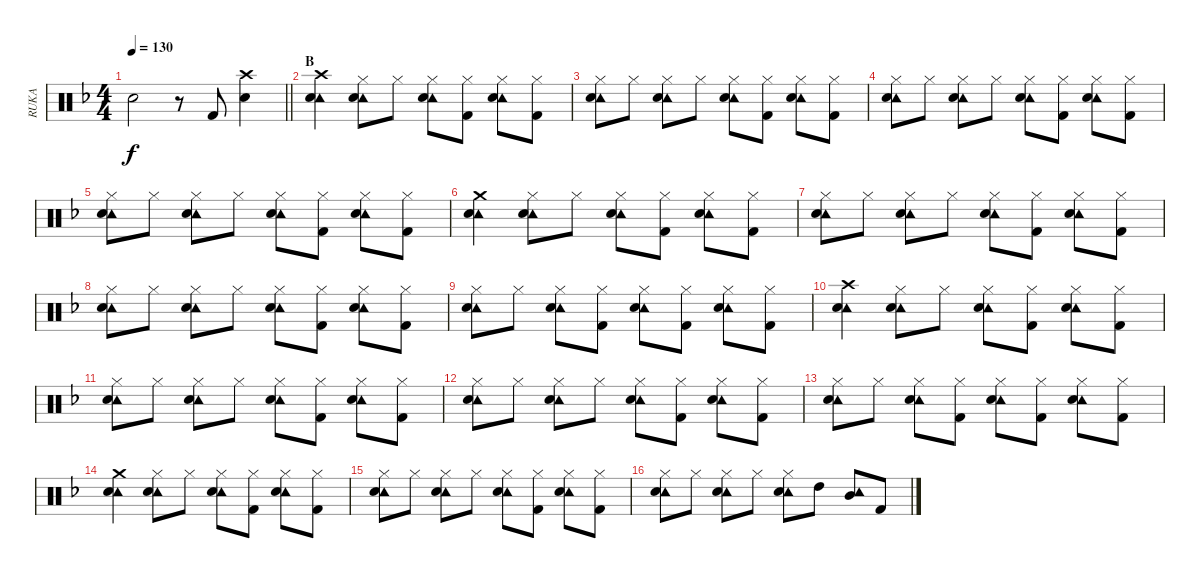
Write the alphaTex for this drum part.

\track ("RUKA" "RUKA") {instrument percussion}
\staff {score}
\articulation defaults
\ts (4 4)
\tempo 130
\clef neutral
\barLineRight lightlight
\ks f "Snare (hit)"{t}.2{dy f}
r.8 "Kick (hit) 2".8 ("Crash high (hit)" "Snare (hit) 2").4 |
\section ("" "B")
("Crash high (hit)" "Tambourine (hit)" "Snare (hit) 2").4 ("Hi-Hat (closed)" "Tambourine (hit)" "Snare (hit) 2").8 "Hi-Hat (closed)".8 ("Hi-Hat (closed)" "Tambourine (hit)" "Snare (hit) 2").8 ("Hi-Hat (closed)" "Kick (hit) 2").8 ("Hi-Hat (closed)" "Tambourine (hit)" "Snare (hit) 2").8 ("Hi-Hat (closed)" "Kick (hit) 2").8 |
("Hi-Hat (closed)" "Tambourine (hit)" "Snare (hit) 2").8 "Hi-Hat (closed)".8 ("Hi-Hat (closed)" "Tambourine (hit)" "Snare (hit) 2").8 "Hi-Hat (closed)".8 ("Hi-Hat (closed)" "Tambourine (hit)" "Snare (hit) 2").8 ("Hi-Hat (closed)" "Kick (hit) 2").8 ("Hi-Hat (closed)" "Tambourine (hit)" "Snare (hit) 2").8 ("Hi-Hat (closed)" "Kick (hit) 2").8 |
("Hi-Hat (closed)" "Tambourine (hit)" "Snare (hit) 2").8 "Hi-Hat (closed)".8 ("Hi-Hat (closed)" "Tambourine (hit)" "Snare (hit) 2").8 "Hi-Hat (closed)".8 ("Hi-Hat (closed)" "Tambourine (hit)" "Snare (hit) 2").8 ("Hi-Hat (closed)" "Kick (hit) 2").8 ("Hi-Hat (closed)" "Tambourine (hit)" "Snare (hit) 2").8 ("Hi-Hat (closed)" "Kick (hit) 2").8 |
("Hi-Hat (closed)" "Tambourine (hit)" "Snare (hit) 2").8 "Hi-Hat (closed)".8 ("Hi-Hat (closed)" "Tambourine (hit)" "Snare (hit) 2").8 "Hi-Hat (closed)".8 ("Hi-Hat (closed)" "Tambourine (hit)" "Snare (hit) 2").8 ("Hi-Hat (closed)" "Kick (hit) 2").8 ("Hi-Hat (closed)" "Tambourine (hit)" "Snare (hit) 2").8 ("Hi-Hat (closed)" "Kick (hit) 2").8 |
("Crash medium (hit)" "Tambourine (hit)" "Snare (hit) 2").4 ("Hi-Hat (closed)" "Tambourine (hit)" "Snare (hit) 2").8 "Hi-Hat (closed)".8 ("Hi-Hat (closed)" "Tambourine (hit)" "Snare (hit) 2").8 ("Hi-Hat (closed)" "Kick (hit) 2").8 ("Hi-Hat (closed)" "Tambourine (hit)" "Snare (hit) 2").8 ("Hi-Hat (closed)" "Kick (hit) 2").8 |
("Hi-Hat (closed)" "Tambourine (hit)" "Snare (hit) 2").8 "Hi-Hat (closed)".8 ("Hi-Hat (closed)" "Tambourine (hit)" "Snare (hit) 2").8 "Hi-Hat (closed)".8 ("Hi-Hat (closed)" "Tambourine (hit)" "Snare (hit) 2").8 ("Hi-Hat (closed)" "Kick (hit) 2").8 ("Hi-Hat (closed)" "Tambourine (hit)" "Snare (hit) 2").8 ("Hi-Hat (closed)" "Kick (hit) 2").8 |
("Hi-Hat (closed)" "Tambourine (hit)" "Snare (hit) 2").8 "Hi-Hat (closed)".8 ("Hi-Hat (closed)" "Tambourine (hit)" "Snare (hit) 2").8 "Hi-Hat (closed)".8 ("Hi-Hat (closed)" "Tambourine (hit)" "Snare (hit) 2").8 ("Hi-Hat (closed)" "Kick (hit) 2").8 ("Hi-Hat (closed)" "Tambourine (hit)" "Snare (hit) 2").8 ("Hi-Hat (closed)" "Kick (hit) 2").8 |
("Hi-Hat (closed)" "Tambourine (hit)" "Snare (hit) 2").8 "Hi-Hat (closed)".8 ("Hi-Hat (closed)" "Tambourine (hit)" "Snare (hit) 2").8 ("Hi-Hat (closed)" "Kick (hit) 2").8 ("Hi-Hat (closed)" "Tambourine (hit)" "Snare (hit) 2").8 ("Hi-Hat (closed)" "Kick (hit) 2").8 ("Hi-Hat (closed)" "Tambourine (hit)" "Snare (hit) 2").8 ("Hi-Hat (closed)" "Kick (hit) 2").8 |
("Crash high (hit)" "Tambourine (hit)" "Snare (hit) 2").4 ("Hi-Hat (closed)" "Tambourine (hit)" "Snare (hit) 2").8 "Hi-Hat (closed)".8 ("Hi-Hat (closed)" "Tambourine (hit)" "Snare (hit) 2").8 ("Hi-Hat (closed)" "Kick (hit) 2").8 ("Hi-Hat (closed)" "Tambourine (hit)" "Snare (hit) 2").8 ("Hi-Hat (closed)" "Kick (hit) 2").8 |
("Hi-Hat (closed)" "Tambourine (hit)" "Snare (hit) 2").8 "Hi-Hat (closed)".8 ("Hi-Hat (closed)" "Tambourine (hit)" "Snare (hit) 2").8 "Hi-Hat (closed)".8 ("Hi-Hat (closed)" "Tambourine (hit)" "Snare (hit) 2").8 ("Hi-Hat (closed)" "Kick (hit) 2").8 ("Hi-Hat (closed)" "Tambourine (hit)" "Snare (hit) 2").8 ("Hi-Hat (closed)" "Kick (hit) 2").8 |
("Hi-Hat (closed)" "Tambourine (hit)" "Snare (hit) 2").8 "Hi-Hat (closed)".8 ("Hi-Hat (closed)" "Tambourine (hit)" "Snare (hit) 2").8 "Hi-Hat (closed)".8 ("Hi-Hat (closed)" "Tambourine (hit)" "Snare (hit) 2").8 ("Hi-Hat (closed)" "Kick (hit) 2").8 ("Hi-Hat (closed)" "Tambourine (hit)" "Snare (hit) 2").8 ("Hi-Hat (closed)" "Kick (hit) 2").8 |
("Hi-Hat (closed)" "Tambourine (hit)" "Snare (hit) 2").8 "Hi-Hat (closed)".8 ("Hi-Hat (closed)" "Tambourine (hit)" "Snare (hit) 2").8 ("Hi-Hat (closed)" "Kick (hit) 2").8 ("Hi-Hat (closed)" "Tambourine (hit)" "Snare (hit) 2").8 ("Hi-Hat (closed)" "Kick (hit) 2").8 ("Hi-Hat (closed)" "Tambourine (hit)" "Snare (hit) 2").8 ("Hi-Hat (closed)" "Kick (hit) 2").8 |
("Crash medium (hit)" "Tambourine (hit)" "Snare (hit) 2").4 ("Hi-Hat (closed)" "Tambourine (hit)" "Snare (hit) 2").8 "Hi-Hat (closed)".8 ("Hi-Hat (closed)" "Tambourine (hit)" "Snare (hit) 2").8 ("Hi-Hat (closed)" "Kick (hit) 2").8 ("Hi-Hat (closed)" "Tambourine (hit)" "Snare (hit) 2").8 ("Hi-Hat (closed)" "Kick (hit) 2").8 |
("Hi-Hat (closed)" "Tambourine (hit)" "Snare (hit) 2").8 "Hi-Hat (closed)".8 ("Hi-Hat (closed)" "Tambourine (hit)" "Snare (hit) 2").8 "Hi-Hat (closed)".8 ("Hi-Hat (closed)" "Tambourine (hit)" "Snare (hit) 2").8 ("Hi-Hat (closed)" "Kick (hit) 2").8 ("Hi-Hat (closed)" "Tambourine (hit)" "Snare (hit) 2").8 ("Hi-Hat (closed)" "Kick (hit) 2").8 |
("Hi-Hat (closed)" "Tambourine (hit)" "Snare (hit) 2").8 "Hi-Hat (closed)".8 ("Hi-Hat (closed)" "Tambourine (hit)" "Snare (hit) 2").8 "Hi-Hat (closed)".8 ("Hi-Hat (closed)" "Tambourine (hit)" "Snare (hit) 2").8 "High Tom (hit)".8 ("Tambourine (hit)" "Mid Tom (hit)").8 "Kick (hit) 2".8
